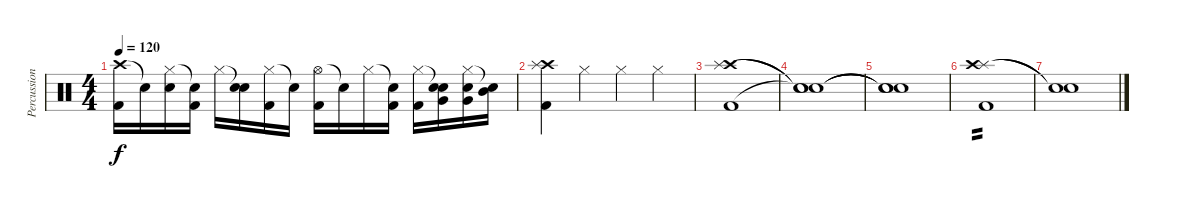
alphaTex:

\track ("Percussion" "Percussion") {instrument percussion}
\staff {score}
\articulation defaults
\ts (4 4)
\tempo 120
\clef neutral
\ks c
("Crash high (hit)" "Kick (hit) 2").16{dy f} "Snare (hit)"{t}.16 ("Hi-Hat (closed)" "Electric Snare (hit)").16 ("Snare (hit)"{t} "Kick (hit) 2").16 "Hi-Hat (closed)".16 ("Snare (hit)"{t} "Electric Snare (hit)").16 ("Hi-Hat (closed)" "Kick (hit) 2").16 "Snare (hit)"{t}.16 ("Hi-Hat (open)" "Kick (hit) 2").16 "Snare (hit)"{t}.16 "Hi-Hat (closed)".16 ("Snare (hit)"{t} "Kick (hit) 2").16 ("Hi-Hat (closed)" "Kick (hit) 2").16 ("Snare (hit)"{t} "Electric Snare (hit)" "Very Low Tom (hit)").16 ("Hi-Hat (closed)" "Electric Snare (hit)" "Very Low Tom (hit)").16 ("Snare (hit)"{t} "Mid Tom (hit)").16 |
("Crash high (hit)" "Splash (hit)" "Kick (hit) 2").4 "Hi-Hat (closed)".4 "Hi-Hat (closed)".4 "Hi-Hat (closed)".4 |
("Crash high (hit)" "Splash (hit)" "Kick (hit) 2").1 |
("Snare (hit)"{t} "Snare (hit)"{t} "Snare (hit)"{t}).1 |
("Snare (hit)"{t} "Snare (hit)"{t} "Snare (hit)"{t}).1 |
("Splash (hit)" "Crash high (hit)" "Kick (hit) 2").1{tp 2} |
("Snare (hit)"{t} "Snare (hit)"{t}).1
